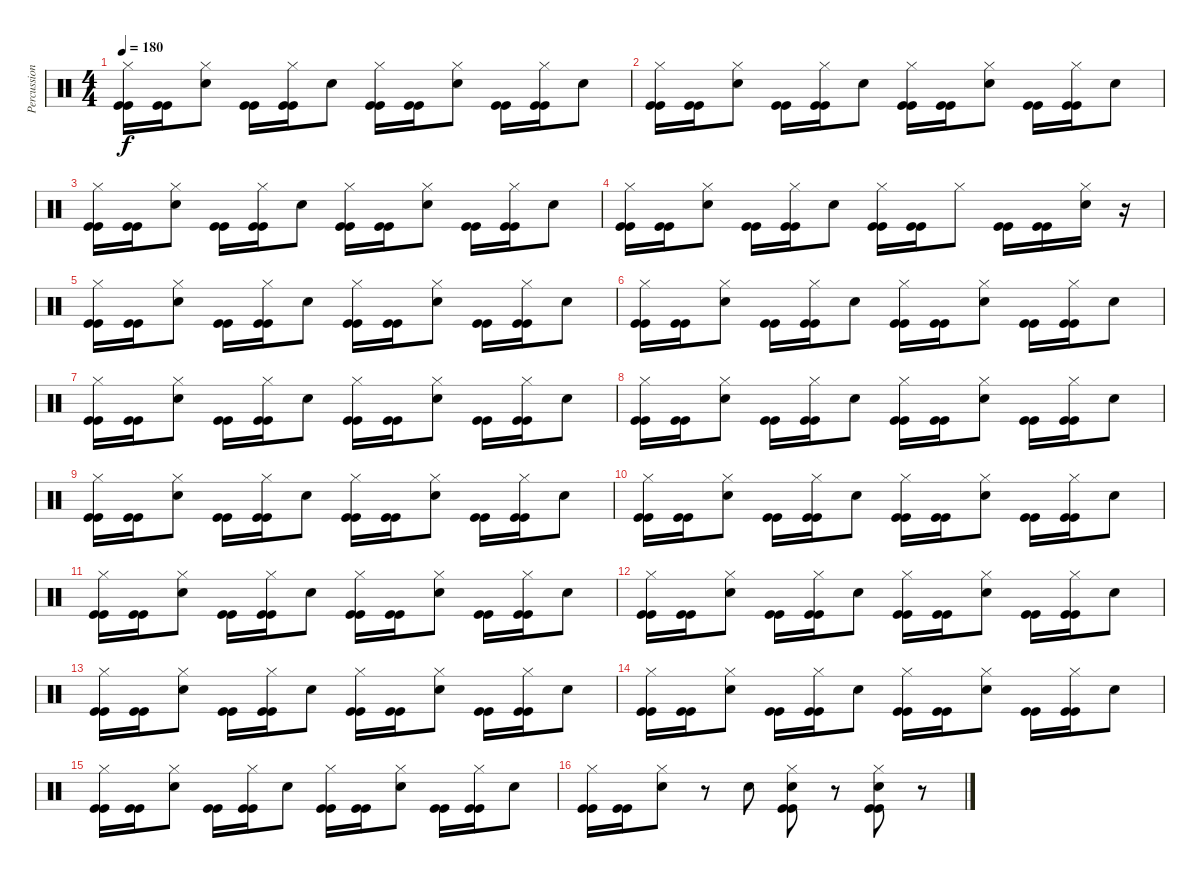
\track ("Percussion" "Percussion") {instrument percussion}
\staff {score}
\articulation defaults
\ts (4 4)
\tempo 180
\clef neutral
\ks c
("Hi-Hat (closed)" "Kick (hit)" "Kick (hit)").16{dy f} ("Kick (hit)" "Kick (hit)").16 ("Hi-Hat (closed)" "Electric Snare (hit)").8 ("Kick (hit)" "Kick (hit)").16 ("Hi-Hat (closed)" "Kick (hit)" "Kick (hit)").16 "Electric Snare (hit)".8 ("Hi-Hat (closed)" "Kick (hit)" "Kick (hit)").16 ("Kick (hit)" "Kick (hit)").16 ("Hi-Hat (closed)" "Electric Snare (hit)").8 ("Kick (hit)" "Kick (hit)").16 ("Hi-Hat (closed)" "Kick (hit)" "Kick (hit)").16 "Electric Snare (hit)".8 |
("Hi-Hat (closed)" "Kick (hit)" "Kick (hit)").16 ("Kick (hit)" "Kick (hit)").16 ("Hi-Hat (closed)" "Electric Snare (hit)").8 ("Kick (hit)" "Kick (hit)").16 ("Hi-Hat (closed)" "Kick (hit)" "Kick (hit)").16 "Electric Snare (hit)".8 ("Hi-Hat (closed)" "Kick (hit)" "Kick (hit)").16 ("Kick (hit)" "Kick (hit)").16 ("Hi-Hat (closed)" "Electric Snare (hit)").8 ("Kick (hit)" "Kick (hit)").16 ("Hi-Hat (closed)" "Kick (hit)" "Kick (hit)").16 "Electric Snare (hit)".8 |
("Hi-Hat (closed)" "Kick (hit)" "Kick (hit)").16 ("Kick (hit)" "Kick (hit)").16 ("Hi-Hat (closed)" "Electric Snare (hit)").8 ("Kick (hit)" "Kick (hit)").16 ("Hi-Hat (closed)" "Kick (hit)" "Kick (hit)").16 "Electric Snare (hit)".8 ("Hi-Hat (closed)" "Kick (hit)" "Kick (hit)").16 ("Kick (hit)" "Kick (hit)").16 ("Hi-Hat (closed)" "Electric Snare (hit)").8 ("Kick (hit)" "Kick (hit)").16 ("Hi-Hat (closed)" "Kick (hit)" "Kick (hit)").16 "Electric Snare (hit)".8 |
("Hi-Hat (closed)" "Kick (hit)" "Kick (hit)").16 ("Kick (hit)" "Kick (hit)").16 ("Hi-Hat (closed)" "Electric Snare (hit)").8 ("Kick (hit)" "Kick (hit)").16 ("Hi-Hat (closed)" "Kick (hit)" "Kick (hit)").16 "Electric Snare (hit)".8 ("Hi-Hat (closed)" "Kick (hit)" "Kick (hit)").16 ("Kick (hit)" "Kick (hit)").16 "Hi-Hat (closed)".8 ("Kick (hit)" "Kick (hit)").16 ("Kick (hit)" "Kick (hit)").16 ("Hi-Hat (closed)" "Electric Snare (hit)").16 r.16 |
("Hi-Hat (closed)" "Kick (hit)" "Kick (hit)").16 ("Kick (hit)" "Kick (hit)").16 ("Hi-Hat (closed)" "Electric Snare (hit)").8 ("Kick (hit)" "Kick (hit)").16 ("Hi-Hat (closed)" "Kick (hit)" "Kick (hit)").16 "Electric Snare (hit)".8 ("Hi-Hat (closed)" "Kick (hit)" "Kick (hit)").16 ("Kick (hit)" "Kick (hit)").16 ("Hi-Hat (closed)" "Electric Snare (hit)").8 ("Kick (hit)" "Kick (hit)").16 ("Hi-Hat (closed)" "Kick (hit)" "Kick (hit)").16 "Electric Snare (hit)".8 |
("Hi-Hat (closed)" "Kick (hit)" "Kick (hit)").16 ("Kick (hit)" "Kick (hit)").16 ("Hi-Hat (closed)" "Electric Snare (hit)").8 ("Kick (hit)" "Kick (hit)").16 ("Hi-Hat (closed)" "Kick (hit)" "Kick (hit)").16 "Electric Snare (hit)".8 ("Hi-Hat (closed)" "Kick (hit)" "Kick (hit)").16 ("Kick (hit)" "Kick (hit)").16 ("Hi-Hat (closed)" "Electric Snare (hit)").8 ("Kick (hit)" "Kick (hit)").16 ("Hi-Hat (closed)" "Kick (hit)" "Kick (hit)").16 "Electric Snare (hit)".8 |
("Hi-Hat (closed)" "Kick (hit)" "Kick (hit)").16 ("Kick (hit)" "Kick (hit)").16 ("Hi-Hat (closed)" "Electric Snare (hit)").8 ("Kick (hit)" "Kick (hit)").16 ("Hi-Hat (closed)" "Kick (hit)" "Kick (hit)").16 "Electric Snare (hit)".8 ("Hi-Hat (closed)" "Kick (hit)" "Kick (hit)").16 ("Kick (hit)" "Kick (hit)").16 ("Hi-Hat (closed)" "Electric Snare (hit)").8 ("Kick (hit)" "Kick (hit)").16 ("Hi-Hat (closed)" "Kick (hit)" "Kick (hit)").16 "Electric Snare (hit)".8 |
("Hi-Hat (closed)" "Kick (hit)" "Kick (hit)").16 ("Kick (hit)" "Kick (hit)").16 ("Hi-Hat (closed)" "Electric Snare (hit)").8 ("Kick (hit)" "Kick (hit)").16 ("Hi-Hat (closed)" "Kick (hit)" "Kick (hit)").16 "Electric Snare (hit)".8 ("Hi-Hat (closed)" "Kick (hit)" "Kick (hit)").16 ("Kick (hit)" "Kick (hit)").16 ("Hi-Hat (closed)" "Electric Snare (hit)").8 ("Kick (hit)" "Kick (hit)").16 ("Hi-Hat (closed)" "Kick (hit)" "Kick (hit)").16 "Electric Snare (hit)".8 |
("Hi-Hat (closed)" "Kick (hit)" "Kick (hit)").16 ("Kick (hit)" "Kick (hit)").16 ("Hi-Hat (closed)" "Electric Snare (hit)").8 ("Kick (hit)" "Kick (hit)").16 ("Hi-Hat (closed)" "Kick (hit)" "Kick (hit)").16 "Electric Snare (hit)".8 ("Hi-Hat (closed)" "Kick (hit)" "Kick (hit)").16 ("Kick (hit)" "Kick (hit)").16 ("Hi-Hat (closed)" "Electric Snare (hit)").8 ("Kick (hit)" "Kick (hit)").16 ("Hi-Hat (closed)" "Kick (hit)" "Kick (hit)").16 "Electric Snare (hit)".8 |
("Hi-Hat (closed)" "Kick (hit)" "Kick (hit)").16 ("Kick (hit)" "Kick (hit)").16 ("Hi-Hat (closed)" "Electric Snare (hit)").8 ("Kick (hit)" "Kick (hit)").16 ("Hi-Hat (closed)" "Kick (hit)" "Kick (hit)").16 "Electric Snare (hit)".8 ("Hi-Hat (closed)" "Kick (hit)" "Kick (hit)").16 ("Kick (hit)" "Kick (hit)").16 ("Hi-Hat (closed)" "Electric Snare (hit)").8 ("Kick (hit)" "Kick (hit)").16 ("Hi-Hat (closed)" "Kick (hit)" "Kick (hit)").16 "Electric Snare (hit)".8 |
("Hi-Hat (closed)" "Kick (hit)" "Kick (hit)").16 ("Kick (hit)" "Kick (hit)").16 ("Hi-Hat (closed)" "Electric Snare (hit)").8 ("Kick (hit)" "Kick (hit)").16 ("Hi-Hat (closed)" "Kick (hit)" "Kick (hit)").16 "Electric Snare (hit)".8 ("Hi-Hat (closed)" "Kick (hit)" "Kick (hit)").16 ("Kick (hit)" "Kick (hit)").16 ("Hi-Hat (closed)" "Electric Snare (hit)").8 ("Kick (hit)" "Kick (hit)").16 ("Hi-Hat (closed)" "Kick (hit)" "Kick (hit)").16 "Electric Snare (hit)".8 |
("Hi-Hat (closed)" "Kick (hit)" "Kick (hit)").16 ("Kick (hit)" "Kick (hit)").16 ("Hi-Hat (closed)" "Electric Snare (hit)").8 ("Kick (hit)" "Kick (hit)").16 ("Hi-Hat (closed)" "Kick (hit)" "Kick (hit)").16 "Electric Snare (hit)".8 ("Hi-Hat (closed)" "Kick (hit)" "Kick (hit)").16 ("Kick (hit)" "Kick (hit)").16 ("Hi-Hat (closed)" "Electric Snare (hit)").8 ("Kick (hit)" "Kick (hit)").16 ("Hi-Hat (closed)" "Kick (hit)" "Kick (hit)").16 "Electric Snare (hit)".8 |
("Hi-Hat (closed)" "Kick (hit)" "Kick (hit)").16 ("Kick (hit)" "Kick (hit)").16 ("Hi-Hat (closed)" "Electric Snare (hit)").8 ("Kick (hit)" "Kick (hit)").16 ("Hi-Hat (closed)" "Kick (hit)" "Kick (hit)").16 "Electric Snare (hit)".8 ("Hi-Hat (closed)" "Kick (hit)" "Kick (hit)").16 ("Kick (hit)" "Kick (hit)").16 ("Hi-Hat (closed)" "Electric Snare (hit)").8 ("Kick (hit)" "Kick (hit)").16 ("Hi-Hat (closed)" "Kick (hit)" "Kick (hit)").16 "Electric Snare (hit)".8 |
("Hi-Hat (closed)" "Kick (hit)" "Kick (hit)").16 ("Kick (hit)" "Kick (hit)").16 ("Hi-Hat (closed)" "Electric Snare (hit)").8 ("Kick (hit)" "Kick (hit)").16 ("Hi-Hat (closed)" "Kick (hit)" "Kick (hit)").16 "Electric Snare (hit)".8 ("Hi-Hat (closed)" "Kick (hit)" "Kick (hit)").16 ("Kick (hit)" "Kick (hit)").16 ("Hi-Hat (closed)" "Electric Snare (hit)").8 ("Kick (hit)" "Kick (hit)").16 ("Hi-Hat (closed)" "Kick (hit)" "Kick (hit)").16 "Electric Snare (hit)".8 |
("Hi-Hat (closed)" "Kick (hit)" "Kick (hit)").16 ("Kick (hit)" "Kick (hit)").16 ("Hi-Hat (closed)" "Electric Snare (hit)").8 ("Kick (hit)" "Kick (hit)").16 ("Hi-Hat (closed)" "Kick (hit)" "Kick (hit)").16 "Electric Snare (hit)".8 ("Hi-Hat (closed)" "Kick (hit)" "Kick (hit)").16 ("Kick (hit)" "Kick (hit)").16 ("Hi-Hat (closed)" "Electric Snare (hit)").8 ("Kick (hit)" "Kick (hit)").16 ("Hi-Hat (closed)" "Kick (hit)" "Kick (hit)").16 "Electric Snare (hit)".8 |
("Hi-Hat (closed)" "Kick (hit)" "Kick (hit)").16 ("Kick (hit)" "Kick (hit)").16 ("Hi-Hat (closed)" "Electric Snare (hit)").8 r.8 "Electric Snare (hit)".8 ("Hi-Hat (closed)" "Electric Snare (hit)" "Kick (hit)" "Kick (hit)").8 r.8 ("Hi-Hat (closed)" "Electric Snare (hit)" "Kick (hit)" "Kick (hit)").8 r.8
